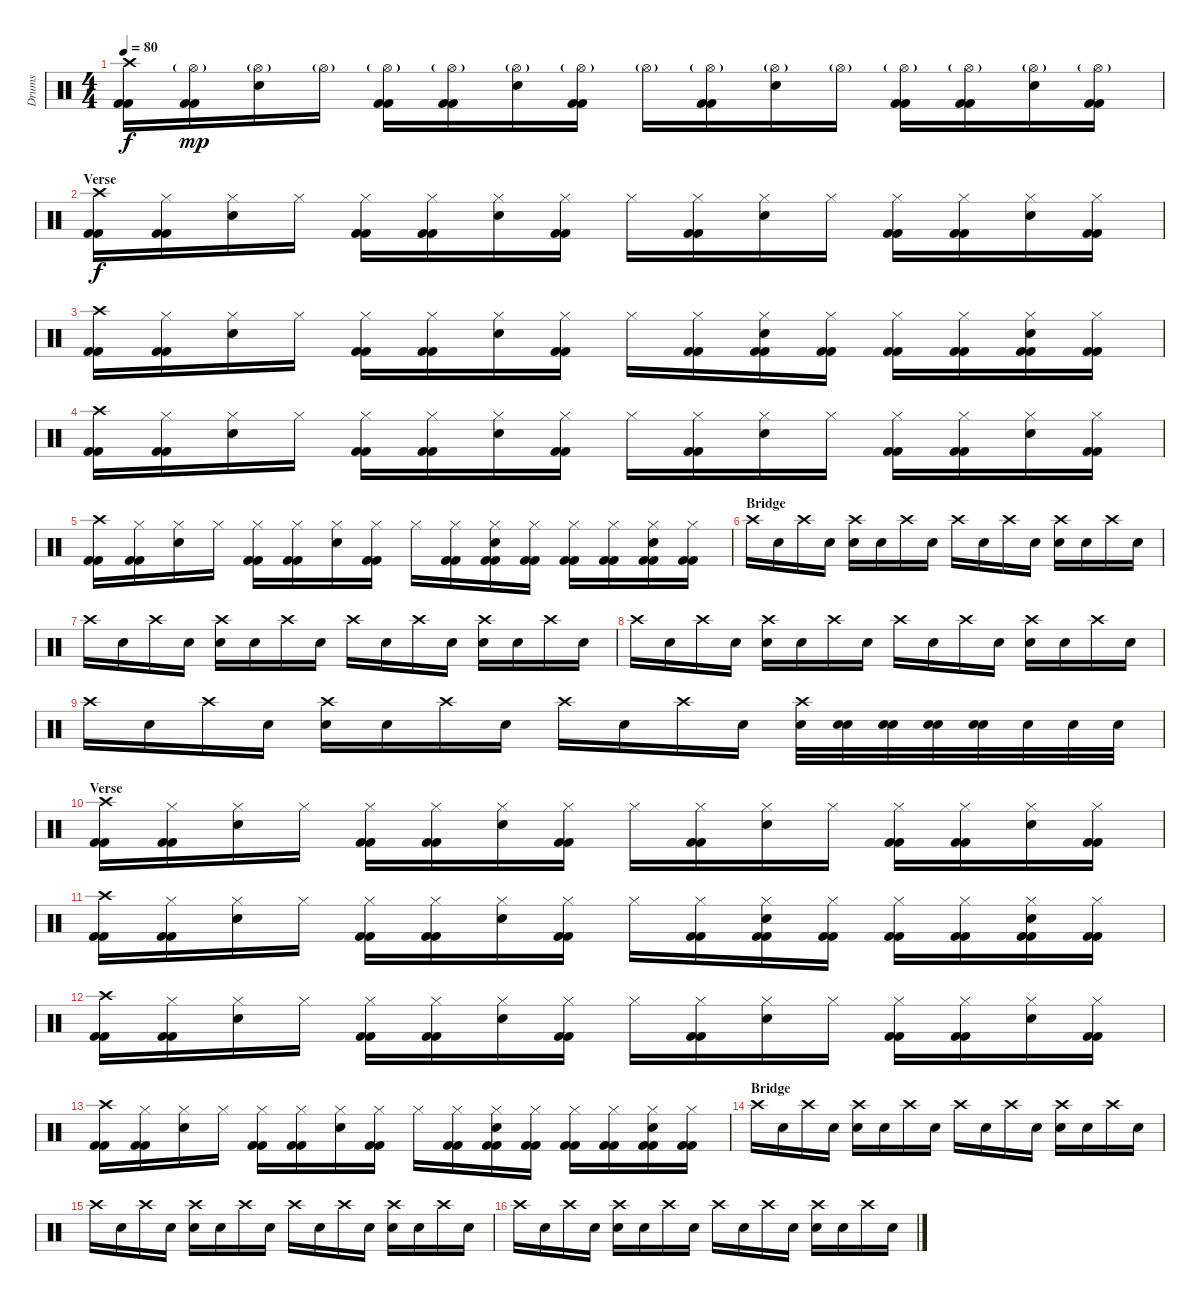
\track ("Drums" "Drums") {instrument percussion}
\staff {score}
\articulation defaults
\ts (4 4)
\tempo 80
\clef neutral
\ks c
("Crash high (hit)" "Kick (hit) 2" "Kick (hit) 2").16{dy f} ("Hi-Hat (open)"{g} "Kick (hit) 2" "Kick (hit) 2").16{dy mp} ("Hi-Hat (open)"{g} "Electric Snare (hit)").16 "Hi-Hat (open)"{g}.16 ("Hi-Hat (open)"{g} "Kick (hit) 2" "Kick (hit) 2").16 ("Hi-Hat (open)"{g} "Kick (hit) 2" "Kick (hit) 2").16 ("Hi-Hat (open)"{g} "Electric Snare (hit)").16 ("Hi-Hat (open)"{g} "Kick (hit) 2" "Kick (hit) 2").16 "Hi-Hat (open)"{g}.16 ("Hi-Hat (open)"{g} "Kick (hit) 2" "Kick (hit) 2").16 ("Hi-Hat (open)"{g} "Electric Snare (hit)").16 "Hi-Hat (open)"{g}.16 ("Hi-Hat (open)"{g} "Kick (hit) 2" "Kick (hit) 2").16 ("Hi-Hat (open)"{g} "Kick (hit) 2" "Kick (hit) 2").16 ("Hi-Hat (open)"{g} "Electric Snare (hit)").16 ("Hi-Hat (open)"{g} "Kick (hit) 2" "Kick (hit) 2").16 |
\section ("" "Verse")
("Crash high (hit)" "Kick (hit) 2" "Kick (hit) 2").16{dy f} ("Hi-Hat (closed)" "Kick (hit) 2" "Kick (hit) 2").16 ("Hi-Hat (closed)" "Electric Snare (hit)").16 "Hi-Hat (closed)".16 ("Hi-Hat (closed)" "Kick (hit) 2" "Kick (hit) 2").16 ("Hi-Hat (closed)" "Kick (hit) 2" "Kick (hit) 2").16 ("Hi-Hat (closed)" "Electric Snare (hit)").16 ("Hi-Hat (closed)" "Kick (hit) 2" "Kick (hit) 2").16 "Hi-Hat (closed)".16 ("Hi-Hat (closed)" "Kick (hit) 2" "Kick (hit) 2").16 ("Hi-Hat (closed)" "Electric Snare (hit)").16 "Hi-Hat (closed)".16 ("Hi-Hat (closed)" "Kick (hit) 2" "Kick (hit) 2").16 ("Hi-Hat (closed)" "Kick (hit) 2" "Kick (hit) 2").16 ("Hi-Hat (closed)" "Electric Snare (hit)").16 ("Hi-Hat (closed)" "Kick (hit) 2" "Kick (hit) 2").16 |
("Crash high (hit)" "Kick (hit) 2" "Kick (hit) 2").16 ("Hi-Hat (closed)" "Kick (hit) 2" "Kick (hit) 2").16 ("Hi-Hat (closed)" "Electric Snare (hit)").16 "Hi-Hat (closed)".16 ("Hi-Hat (closed)" "Kick (hit) 2" "Kick (hit) 2").16 ("Hi-Hat (closed)" "Kick (hit) 2" "Kick (hit) 2").16 ("Hi-Hat (closed)" "Electric Snare (hit)").16 ("Hi-Hat (closed)" "Kick (hit) 2" "Kick (hit) 2").16 "Hi-Hat (closed)".16 ("Hi-Hat (closed)" "Kick (hit) 2" "Kick (hit) 2").16 ("Hi-Hat (closed)" "Electric Snare (hit)" "Kick (hit) 2" "Kick (hit) 2").16 ("Hi-Hat (closed)" "Kick (hit) 2" "Kick (hit) 2").16 ("Hi-Hat (closed)" "Kick (hit) 2" "Kick (hit) 2").16 ("Hi-Hat (closed)" "Kick (hit) 2" "Kick (hit) 2").16 ("Hi-Hat (closed)" "Electric Snare (hit)" "Kick (hit) 2" "Kick (hit) 2").16 ("Hi-Hat (closed)" "Kick (hit) 2" "Kick (hit) 2").16 |
("Crash high (hit)" "Kick (hit) 2" "Kick (hit) 2").16 ("Hi-Hat (closed)" "Kick (hit) 2" "Kick (hit) 2").16 ("Hi-Hat (closed)" "Electric Snare (hit)").16 "Hi-Hat (closed)".16 ("Hi-Hat (closed)" "Kick (hit) 2" "Kick (hit) 2").16 ("Hi-Hat (closed)" "Kick (hit) 2" "Kick (hit) 2").16 ("Hi-Hat (closed)" "Electric Snare (hit)").16 ("Hi-Hat (closed)" "Kick (hit) 2" "Kick (hit) 2").16 "Hi-Hat (closed)".16 ("Hi-Hat (closed)" "Kick (hit) 2" "Kick (hit) 2").16 ("Hi-Hat (closed)" "Electric Snare (hit)").16 "Hi-Hat (closed)".16 ("Hi-Hat (closed)" "Kick (hit) 2" "Kick (hit) 2").16 ("Hi-Hat (closed)" "Kick (hit) 2" "Kick (hit) 2").16 ("Hi-Hat (closed)" "Electric Snare (hit)").16 ("Hi-Hat (closed)" "Kick (hit) 2" "Kick (hit) 2").16 |
("Crash high (hit)" "Kick (hit) 2" "Kick (hit) 2").16 ("Hi-Hat (closed)" "Kick (hit) 2" "Kick (hit) 2").16 ("Hi-Hat (closed)" "Electric Snare (hit)").16 "Hi-Hat (closed)".16 ("Hi-Hat (closed)" "Kick (hit) 2" "Kick (hit) 2").16 ("Hi-Hat (closed)" "Kick (hit) 2" "Kick (hit) 2").16 ("Hi-Hat (closed)" "Electric Snare (hit)").16 ("Hi-Hat (closed)" "Kick (hit) 2" "Kick (hit) 2").16 "Hi-Hat (closed)".16 ("Hi-Hat (closed)" "Kick (hit) 2" "Kick (hit) 2").16 ("Hi-Hat (closed)" "Electric Snare (hit)" "Kick (hit) 2" "Kick (hit) 2").16 ("Hi-Hat (closed)" "Kick (hit) 2" "Kick (hit) 2").16 ("Hi-Hat (closed)" "Kick (hit) 2" "Kick (hit) 2").16 ("Hi-Hat (closed)" "Kick (hit) 2" "Kick (hit) 2").16 ("Hi-Hat (closed)" "Electric Snare (hit)" "Kick (hit) 2" "Kick (hit) 2").16 ("Hi-Hat (closed)" "Kick (hit) 2" "Kick (hit) 2").16 |
\section ("" "Bridge")
"Crash high (hit)".16 "Snare (hit)"{x}.16 "Crash high (hit)".16 "Snare (hit)"{x}.16 ("Crash high (hit)" "Electric Snare (hit)").16 "Snare (hit)"{x}.16 "Crash high (hit)".16 "Snare (hit)"{x}.16 "Crash high (hit)".16 "Snare (hit)"{x}.16 "Crash high (hit)".16 "Snare (hit)"{x}.16 ("Crash high (hit)" "Electric Snare (hit)").16 "Snare (hit)"{x}.16 "Crash high (hit)".16 "Snare (hit)"{x}.16 |
"Crash high (hit)".16 "Snare (hit)"{x}.16 "Crash high (hit)".16 "Snare (hit)"{x}.16 ("Crash high (hit)" "Electric Snare (hit)").16 "Snare (hit)"{x}.16 "Crash high (hit)".16 "Snare (hit)"{x}.16 "Crash high (hit)".16 "Snare (hit)"{x}.16 "Crash high (hit)".16 "Snare (hit)"{x}.16 ("Crash high (hit)" "Electric Snare (hit)").16 "Snare (hit)"{x}.16 "Crash high (hit)".16 "Snare (hit)"{x}.16 |
"Crash high (hit)".16 "Snare (hit)"{x}.16 "Crash high (hit)".16 "Snare (hit)"{x}.16 ("Crash high (hit)" "Electric Snare (hit)").16 "Snare (hit)"{x}.16 "Crash high (hit)".16 "Snare (hit)"{x}.16 "Crash high (hit)".16 "Snare (hit)"{x}.16 "Crash high (hit)".16 "Snare (hit)"{x}.16 ("Crash high (hit)" "Electric Snare (hit)").16 "Snare (hit)"{x}.16 "Crash high (hit)".16 "Snare (hit)"{x}.16 |
"Crash high (hit)".16 "Snare (hit)"{x}.16 "Crash high (hit)".16 "Snare (hit)"{x}.16 ("Crash high (hit)" "Electric Snare (hit)").16 "Snare (hit)"{x}.16 "Crash high (hit)".16 "Snare (hit)"{x}.16 "Crash high (hit)".16 "Snare (hit)"{x}.16 "Crash high (hit)".16 "Snare (hit)"{x}.16 ("Crash high (hit)" "Electric Snare (hit)").32 ("Snare (hit)"{x} "Electric Snare (hit)").32 ("Snare (hit)"{x} "Electric Snare (hit)").32 ("Snare (hit)"{x} "Electric Snare (hit)").32 ("Snare (hit)"{x} "Electric Snare (hit)").32 "Electric Snare (hit)".32 "Electric Snare (hit)".32 "Electric Snare (hit)".32 |
\section ("" "Verse")
("Crash high (hit)" "Kick (hit) 2" "Kick (hit) 2").16 ("Hi-Hat (closed)" "Kick (hit) 2" "Kick (hit) 2").16 ("Hi-Hat (closed)" "Electric Snare (hit)").16 "Hi-Hat (closed)".16 ("Hi-Hat (closed)" "Kick (hit) 2" "Kick (hit) 2").16 ("Hi-Hat (closed)" "Kick (hit) 2" "Kick (hit) 2").16 ("Hi-Hat (closed)" "Electric Snare (hit)").16 ("Hi-Hat (closed)" "Kick (hit) 2" "Kick (hit) 2").16 "Hi-Hat (closed)".16 ("Hi-Hat (closed)" "Kick (hit) 2" "Kick (hit) 2").16 ("Hi-Hat (closed)" "Electric Snare (hit)").16 "Hi-Hat (closed)".16 ("Hi-Hat (closed)" "Kick (hit) 2" "Kick (hit) 2").16 ("Hi-Hat (closed)" "Kick (hit) 2" "Kick (hit) 2").16 ("Hi-Hat (closed)" "Electric Snare (hit)").16 ("Hi-Hat (closed)" "Kick (hit) 2" "Kick (hit) 2").16 |
("Crash high (hit)" "Kick (hit) 2" "Kick (hit) 2").16 ("Hi-Hat (closed)" "Kick (hit) 2" "Kick (hit) 2").16 ("Hi-Hat (closed)" "Electric Snare (hit)").16 "Hi-Hat (closed)".16 ("Hi-Hat (closed)" "Kick (hit) 2" "Kick (hit) 2").16 ("Hi-Hat (closed)" "Kick (hit) 2" "Kick (hit) 2").16 ("Hi-Hat (closed)" "Electric Snare (hit)").16 ("Hi-Hat (closed)" "Kick (hit) 2" "Kick (hit) 2").16 "Hi-Hat (closed)".16 ("Hi-Hat (closed)" "Kick (hit) 2" "Kick (hit) 2").16 ("Hi-Hat (closed)" "Electric Snare (hit)" "Kick (hit) 2" "Kick (hit) 2").16 ("Hi-Hat (closed)" "Kick (hit) 2" "Kick (hit) 2").16 ("Hi-Hat (closed)" "Kick (hit) 2" "Kick (hit) 2").16 ("Hi-Hat (closed)" "Kick (hit) 2" "Kick (hit) 2").16 ("Hi-Hat (closed)" "Electric Snare (hit)" "Kick (hit) 2" "Kick (hit) 2").16 ("Hi-Hat (closed)" "Kick (hit) 2" "Kick (hit) 2").16 |
("Crash high (hit)" "Kick (hit) 2" "Kick (hit) 2").16 ("Hi-Hat (closed)" "Kick (hit) 2" "Kick (hit) 2").16 ("Hi-Hat (closed)" "Electric Snare (hit)").16 "Hi-Hat (closed)".16 ("Hi-Hat (closed)" "Kick (hit) 2" "Kick (hit) 2").16 ("Hi-Hat (closed)" "Kick (hit) 2" "Kick (hit) 2").16 ("Hi-Hat (closed)" "Electric Snare (hit)").16 ("Hi-Hat (closed)" "Kick (hit) 2" "Kick (hit) 2").16 "Hi-Hat (closed)".16 ("Hi-Hat (closed)" "Kick (hit) 2" "Kick (hit) 2").16 ("Hi-Hat (closed)" "Electric Snare (hit)").16 "Hi-Hat (closed)".16 ("Hi-Hat (closed)" "Kick (hit) 2" "Kick (hit) 2").16 ("Hi-Hat (closed)" "Kick (hit) 2" "Kick (hit) 2").16 ("Hi-Hat (closed)" "Electric Snare (hit)").16 ("Hi-Hat (closed)" "Kick (hit) 2" "Kick (hit) 2").16 |
("Crash high (hit)" "Kick (hit) 2" "Kick (hit) 2").16 ("Hi-Hat (closed)" "Kick (hit) 2" "Kick (hit) 2").16 ("Hi-Hat (closed)" "Electric Snare (hit)").16 "Hi-Hat (closed)".16 ("Hi-Hat (closed)" "Kick (hit) 2" "Kick (hit) 2").16 ("Hi-Hat (closed)" "Kick (hit) 2" "Kick (hit) 2").16 ("Hi-Hat (closed)" "Electric Snare (hit)").16 ("Hi-Hat (closed)" "Kick (hit) 2" "Kick (hit) 2").16 "Hi-Hat (closed)".16 ("Hi-Hat (closed)" "Kick (hit) 2" "Kick (hit) 2").16 ("Hi-Hat (closed)" "Electric Snare (hit)" "Kick (hit) 2" "Kick (hit) 2").16 ("Hi-Hat (closed)" "Kick (hit) 2" "Kick (hit) 2").16 ("Hi-Hat (closed)" "Kick (hit) 2" "Kick (hit) 2").16 ("Hi-Hat (closed)" "Kick (hit) 2" "Kick (hit) 2").16 ("Hi-Hat (closed)" "Electric Snare (hit)" "Kick (hit) 2" "Kick (hit) 2").16 ("Hi-Hat (closed)" "Kick (hit) 2" "Kick (hit) 2").16 |
\section ("" "Bridge")
"Crash high (hit)".16 "Snare (hit)"{x}.16 "Crash high (hit)".16 "Snare (hit)"{x}.16 ("Crash high (hit)" "Electric Snare (hit)").16 "Snare (hit)"{x}.16 "Crash high (hit)".16 "Snare (hit)"{x}.16 "Crash high (hit)".16 "Snare (hit)"{x}.16 "Crash high (hit)".16 "Snare (hit)"{x}.16 ("Crash high (hit)" "Electric Snare (hit)").16 "Snare (hit)"{x}.16 "Crash high (hit)".16 "Snare (hit)"{x}.16 |
"Crash high (hit)".16 "Snare (hit)"{x}.16 "Crash high (hit)".16 "Snare (hit)"{x}.16 ("Crash high (hit)" "Electric Snare (hit)").16 "Snare (hit)"{x}.16 "Crash high (hit)".16 "Snare (hit)"{x}.16 "Crash high (hit)".16 "Snare (hit)"{x}.16 "Crash high (hit)".16 "Snare (hit)"{x}.16 ("Crash high (hit)" "Electric Snare (hit)").16 "Snare (hit)"{x}.16 "Crash high (hit)".16 "Snare (hit)"{x}.16 |
"Crash high (hit)".16 "Snare (hit)"{x}.16 "Crash high (hit)".16 "Snare (hit)"{x}.16 ("Crash high (hit)" "Electric Snare (hit)").16 "Snare (hit)"{x}.16 "Crash high (hit)".16 "Snare (hit)"{x}.16 "Crash high (hit)".16 "Snare (hit)"{x}.16 "Crash high (hit)".16 "Snare (hit)"{x}.16 ("Crash high (hit)" "Electric Snare (hit)").16 "Snare (hit)"{x}.16 "Crash high (hit)".16 "Snare (hit)"{x}.16
